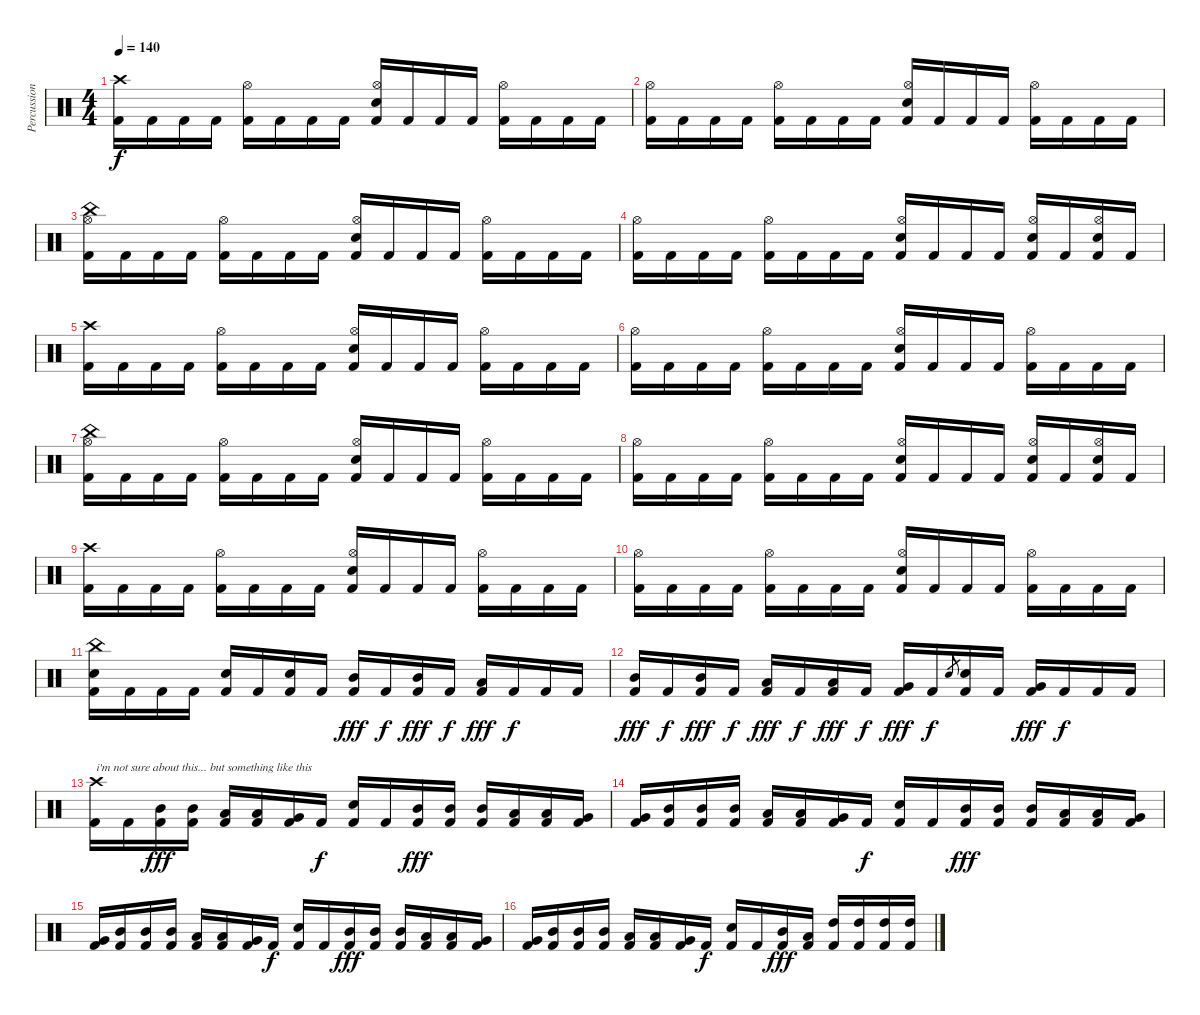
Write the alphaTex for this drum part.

\track ("Percussion" "Percussion") {instrument percussion}
\staff {score}
\articulation defaults
\ts (4 4)
\tempo 140
\clef neutral
\ks c
("Crash high (hit)" "Kick (hit) 2").16{dy f} "Kick (hit) 2".16 "Kick (hit) 2".16 "Kick (hit) 2".16 ("Hi-Hat (open)" "Kick (hit) 2").16 "Kick (hit) 2".16 "Kick (hit) 2".16 "Kick (hit) 2".16 ("Hi-Hat (open)" "Snare (hit) 2" "Kick (hit) 2").16 "Kick (hit) 2".16 "Kick (hit) 2".16 "Kick (hit) 2".16 ("Hi-Hat (open)" "Kick (hit) 2").16 "Kick (hit) 2".16 "Kick (hit) 2".16 "Kick (hit) 2".16 |
("Hi-Hat (open)" "Kick (hit) 2").16 "Kick (hit) 2".16 "Kick (hit) 2".16 "Kick (hit) 2".16 ("Hi-Hat (open)" "Kick (hit) 2").16 "Kick (hit) 2".16 "Kick (hit) 2".16 "Kick (hit) 2".16 ("Hi-Hat (open)" "Snare (hit) 2" "Kick (hit) 2").16 "Kick (hit) 2".16 "Kick (hit) 2".16 "Kick (hit) 2".16 ("Hi-Hat (open)" "Kick (hit) 2").16 "Kick (hit) 2".16 "Kick (hit) 2".16 "Kick (hit) 2".16 |
("Hi-Hat (open)" "China (hit)" "Kick (hit) 2").16 "Kick (hit) 2".16 "Kick (hit) 2".16 "Kick (hit) 2".16 ("Hi-Hat (open)" "Kick (hit) 2").16 "Kick (hit) 2".16 "Kick (hit) 2".16 "Kick (hit) 2".16 ("Hi-Hat (open)" "Snare (hit) 2" "Kick (hit) 2").16 "Kick (hit) 2".16 "Kick (hit) 2".16 "Kick (hit) 2".16 ("Hi-Hat (open)" "Kick (hit) 2").16 "Kick (hit) 2".16 "Kick (hit) 2".16 "Kick (hit) 2".16 |
("Hi-Hat (open)" "Kick (hit) 2").16 "Kick (hit) 2".16 "Kick (hit) 2".16 "Kick (hit) 2".16 ("Hi-Hat (open)" "Kick (hit) 2").16 "Kick (hit) 2".16 "Kick (hit) 2".16 "Kick (hit) 2".16 ("Hi-Hat (open)" "Snare (hit) 2" "Kick (hit) 2").16 "Kick (hit) 2".16 "Kick (hit) 2".16 "Kick (hit) 2".16 ("Hi-Hat (open)" "Snare (hit) 2" "Kick (hit) 2").16 "Kick (hit) 2".16 ("Hi-Hat (open)" "Snare (hit) 2" "Kick (hit) 2").16 "Kick (hit) 2".16 |
("Crash high (hit)" "Kick (hit) 2").16 "Kick (hit) 2".16 "Kick (hit) 2".16 "Kick (hit) 2".16 ("Hi-Hat (open)" "Kick (hit) 2").16 "Kick (hit) 2".16 "Kick (hit) 2".16 "Kick (hit) 2".16 ("Hi-Hat (open)" "Snare (hit) 2" "Kick (hit) 2").16 "Kick (hit) 2".16 "Kick (hit) 2".16 "Kick (hit) 2".16 ("Hi-Hat (open)" "Kick (hit) 2").16 "Kick (hit) 2".16 "Kick (hit) 2".16 "Kick (hit) 2".16 |
("Hi-Hat (open)" "Kick (hit) 2").16 "Kick (hit) 2".16 "Kick (hit) 2".16 "Kick (hit) 2".16 ("Hi-Hat (open)" "Kick (hit) 2").16 "Kick (hit) 2".16 "Kick (hit) 2".16 "Kick (hit) 2".16 ("Hi-Hat (open)" "Snare (hit) 2" "Kick (hit) 2").16 "Kick (hit) 2".16 "Kick (hit) 2".16 "Kick (hit) 2".16 ("Hi-Hat (open)" "Kick (hit) 2").16 "Kick (hit) 2".16 "Kick (hit) 2".16 "Kick (hit) 2".16 |
("Hi-Hat (open)" "China (hit)" "Kick (hit) 2").16 "Kick (hit) 2".16 "Kick (hit) 2".16 "Kick (hit) 2".16 ("Hi-Hat (open)" "Kick (hit) 2").16 "Kick (hit) 2".16 "Kick (hit) 2".16 "Kick (hit) 2".16 ("Hi-Hat (open)" "Snare (hit) 2" "Kick (hit) 2").16 "Kick (hit) 2".16 "Kick (hit) 2".16 "Kick (hit) 2".16 ("Hi-Hat (open)" "Kick (hit) 2").16 "Kick (hit) 2".16 "Kick (hit) 2".16 "Kick (hit) 2".16 |
("Hi-Hat (open)" "Kick (hit) 2").16 "Kick (hit) 2".16 "Kick (hit) 2".16 "Kick (hit) 2".16 ("Hi-Hat (open)" "Kick (hit) 2").16 "Kick (hit) 2".16 "Kick (hit) 2".16 "Kick (hit) 2".16 ("Hi-Hat (open)" "Snare (hit) 2" "Kick (hit) 2").16 "Kick (hit) 2".16 "Kick (hit) 2".16 "Kick (hit) 2".16 ("Hi-Hat (open)" "Snare (hit) 2" "Kick (hit) 2").16 "Kick (hit) 2".16 ("Hi-Hat (open)" "Snare (hit) 2" "Kick (hit) 2").16 "Kick (hit) 2".16 |
("Crash high (hit)" "Kick (hit) 2").16 "Kick (hit) 2".16 "Kick (hit) 2".16 "Kick (hit) 2".16 ("Hi-Hat (open)" "Kick (hit) 2").16 "Kick (hit) 2".16 "Kick (hit) 2".16 "Kick (hit) 2".16 ("Hi-Hat (open)" "Snare (hit) 2" "Kick (hit) 2").16 "Kick (hit) 2".16 "Kick (hit) 2".16 "Kick (hit) 2".16 ("Hi-Hat (open)" "Kick (hit) 2").16 "Kick (hit) 2".16 "Kick (hit) 2".16 "Kick (hit) 2".16 |
("Hi-Hat (open)" "Kick (hit) 2").16 "Kick (hit) 2".16 "Kick (hit) 2".16 "Kick (hit) 2".16 ("Hi-Hat (open)" "Kick (hit) 2").16 "Kick (hit) 2".16 "Kick (hit) 2".16 "Kick (hit) 2".16 ("Hi-Hat (open)" "Snare (hit) 2" "Kick (hit) 2").16 "Kick (hit) 2".16 "Kick (hit) 2".16 "Kick (hit) 2".16 ("Hi-Hat (open)" "Kick (hit) 2").16 "Kick (hit) 2".16 "Kick (hit) 2".16 "Kick (hit) 2".16 |
("China (hit)" "Snare (hit) 2" "Kick (hit) 2").16 "Kick (hit) 2".16 "Kick (hit) 2".16 "Kick (hit) 2".16 ("Snare (hit) 2" "Kick (hit) 2").16 "Kick (hit) 2".16 ("Snare (hit) 2" "Kick (hit) 2").16 "Kick (hit) 2".16 ("Mid Tom (hit)" "Kick (hit) 2").16{dy fff} "Kick (hit) 2".16{dy f} ("Mid Tom (hit)" "Kick (hit) 2").16{dy fff} "Kick (hit) 2".16{dy f} ("Low Tom (hit)" "Kick (hit) 2").16{dy fff} "Kick (hit) 2".16{dy f} "Kick (hit) 2".16 "Kick (hit) 2".16 |
("Mid Tom (hit)" "Kick (hit) 2").16{dy fff} "Kick (hit) 2".16{dy f} ("Mid Tom (hit)" "Kick (hit) 2").16{dy fff} "Kick (hit) 2".16{dy f} ("Low Tom (hit)" "Kick (hit) 2").16{dy fff} "Kick (hit) 2".16{dy f} ("Low Tom (hit)" "Kick (hit) 2").16{dy fff} "Kick (hit) 2".16{dy f} ("Very Low Tom (hit)" "Kick (hit) 2").16{dy fff} "Kick (hit) 2".16{dy f} "Snare (hit) 2".8{gr} ("Snare (hit) 2" "Kick (hit) 2").16 "Kick (hit) 2".16 ("Very Low Tom (hit)" "Kick (hit) 2").16{dy fff} "Kick (hit) 2".16{dy f} "Kick (hit) 2".16 "Kick (hit) 2".16 |
("Crash high (hit)" "Kick (hit) 2").16{txt "i'm not sure about this... but something like this"} "Kick (hit) 2".16 ("Mid Tom (hit)" "Kick (hit) 2").16{dy fff} ("Mid Tom (hit)" "Kick (hit) 2").16 ("Low Tom (hit)" "Kick (hit) 2").16 ("Low Tom (hit)" "Kick (hit) 2").16 ("Very Low Tom (hit)" "Kick (hit) 2").16 "Kick (hit) 2".16{dy f} ("Snare (hit) 2" "Kick (hit) 2").16 "Kick (hit) 2".16 ("Mid Tom (hit)" "Kick (hit) 2").16{dy fff} ("Mid Tom (hit)" "Kick (hit) 2").16 ("Mid Tom (hit)" "Kick (hit) 2").16 ("Low Tom (hit)" "Kick (hit) 2").16 ("Low Tom (hit)" "Kick (hit) 2").16 ("Very Low Tom (hit)" "Kick (hit) 2").16 |
("Very Low Tom (hit)" "Kick (hit) 2").16 ("Mid Tom (hit)" "Kick (hit) 2").16 ("Mid Tom (hit)" "Kick (hit) 2").16 ("Mid Tom (hit)" "Kick (hit) 2").16 ("Low Tom (hit)" "Kick (hit) 2").16 ("Low Tom (hit)" "Kick (hit) 2").16 ("Very Low Tom (hit)" "Kick (hit) 2").16 "Kick (hit) 2".16{dy f} ("Snare (hit) 2" "Kick (hit) 2").16 "Kick (hit) 2".16 ("Mid Tom (hit)" "Kick (hit) 2").16{dy fff} ("Mid Tom (hit)" "Kick (hit) 2").16 ("Mid Tom (hit)" "Kick (hit) 2").16 ("Low Tom (hit)" "Kick (hit) 2").16 ("Low Tom (hit)" "Kick (hit) 2").16 ("Very Low Tom (hit)" "Kick (hit) 2").16 |
("Very Low Tom (hit)" "Kick (hit) 2").16 ("Mid Tom (hit)" "Kick (hit) 2").16 ("Mid Tom (hit)" "Kick (hit) 2").16 ("Mid Tom (hit)" "Kick (hit) 2").16 ("Low Tom (hit)" "Kick (hit) 2").16 ("Low Tom (hit)" "Kick (hit) 2").16 ("Very Low Tom (hit)" "Kick (hit) 2").16 "Kick (hit) 2".16{dy f} ("Snare (hit) 2" "Kick (hit) 2").16 "Kick (hit) 2".16 ("Mid Tom (hit)" "Kick (hit) 2").16{dy fff} ("Mid Tom (hit)" "Kick (hit) 2").16 ("Mid Tom (hit)" "Kick (hit) 2").16 ("Low Tom (hit)" "Kick (hit) 2").16 ("Low Tom (hit)" "Kick (hit) 2").16 ("Very Low Tom (hit)" "Kick (hit) 2").16 |
("Very Low Tom (hit)" "Kick (hit) 2").16 ("Mid Tom (hit)" "Kick (hit) 2").16 ("Mid Tom (hit)" "Kick (hit) 2").16 ("Mid Tom (hit)" "Kick (hit) 2").16 ("Low Tom (hit)" "Kick (hit) 2").16 ("Low Tom (hit)" "Kick (hit) 2").16 ("Very Low Tom (hit)" "Kick (hit) 2").16 "Kick (hit) 2".16{dy f} ("Snare (hit) 2" "Kick (hit) 2").16 "Kick (hit) 2".16 ("Mid Tom (hit)" "Kick (hit) 2").16{dy fff} ("Low Tom (hit)" "Kick (hit) 2").16 ("High Tom (hit)" "Kick (hit) 2").16 ("High Tom (hit)" "Kick (hit) 2").16 ("High Tom (hit)" "Kick (hit) 2").16 ("High Tom (hit)" "Kick (hit) 2").16
